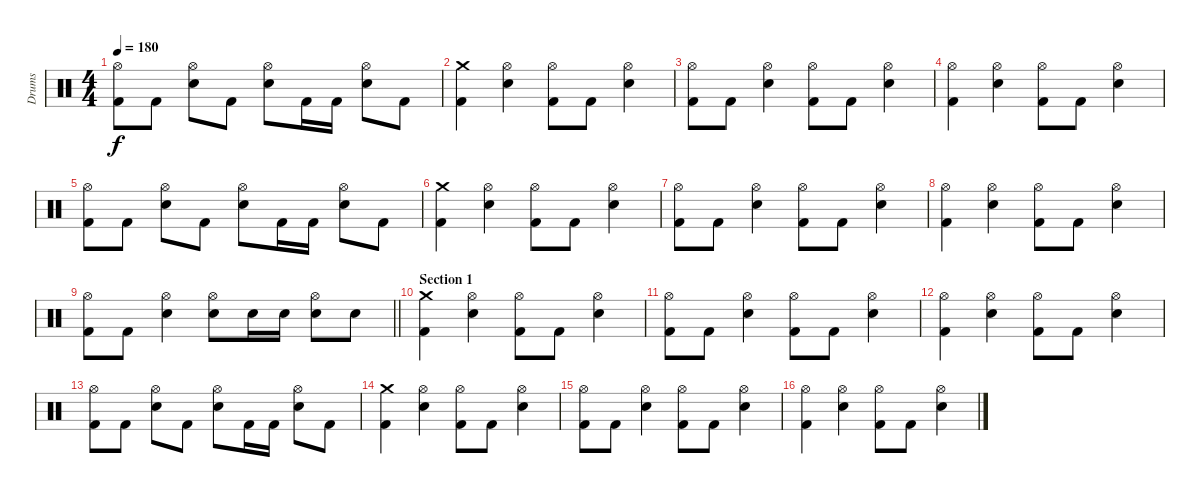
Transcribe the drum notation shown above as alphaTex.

\track ("Drums" "Drums") {instrument percussion}
\staff {score}
\articulation defaults
\ts (4 4)
\tempo 180
\clef neutral
\ks c
("Hi-Hat (open)" "Kick (hit) 2").8{dy f} "Kick (hit) 2".8 ("Hi-Hat (open)" "Electric Snare (hit)").8 "Kick (hit) 2".8 ("Hi-Hat (open)" "Electric Snare (hit)").8 "Kick (hit) 2".16 "Kick (hit) 2".16 ("Hi-Hat (open)" "Electric Snare (hit)").8 "Kick (hit) 2".8 |
("Crash medium (hit)" "Kick (hit) 2").4 ("Hi-Hat (open)" "Electric Snare (hit)").4 ("Hi-Hat (open)" "Kick (hit) 2").8 "Kick (hit) 2".8 ("Hi-Hat (open)" "Electric Snare (hit)").4 |
("Hi-Hat (open)" "Kick (hit) 2").8 "Kick (hit) 2".8 ("Hi-Hat (open)" "Electric Snare (hit)").4 ("Hi-Hat (open)" "Kick (hit) 2").8 "Kick (hit) 2".8 ("Hi-Hat (open)" "Electric Snare (hit)").4 |
("Hi-Hat (open)" "Kick (hit) 2").4 ("Hi-Hat (open)" "Electric Snare (hit)").4 ("Hi-Hat (open)" "Kick (hit) 2").8 "Kick (hit) 2".8 ("Hi-Hat (open)" "Electric Snare (hit)").4 |
("Hi-Hat (open)" "Kick (hit) 2").8 "Kick (hit) 2".8 ("Hi-Hat (open)" "Electric Snare (hit)").8 "Kick (hit) 2".8 ("Hi-Hat (open)" "Electric Snare (hit)").8 "Kick (hit) 2".16 "Kick (hit) 2".16 ("Hi-Hat (open)" "Electric Snare (hit)").8 "Kick (hit) 2".8 |
("Crash medium (hit)" "Kick (hit) 2").4 ("Hi-Hat (open)" "Electric Snare (hit)").4 ("Hi-Hat (open)" "Kick (hit) 2").8 "Kick (hit) 2".8 ("Hi-Hat (open)" "Electric Snare (hit)").4 |
("Hi-Hat (open)" "Kick (hit) 2").8 "Kick (hit) 2".8 ("Hi-Hat (open)" "Electric Snare (hit)").4 ("Hi-Hat (open)" "Kick (hit) 2").8 "Kick (hit) 2".8 ("Hi-Hat (open)" "Electric Snare (hit)").4 |
("Hi-Hat (open)" "Kick (hit) 2").4 ("Hi-Hat (open)" "Electric Snare (hit)").4 ("Hi-Hat (open)" "Kick (hit) 2").8 "Kick (hit) 2".8 ("Hi-Hat (open)" "Electric Snare (hit)").4 |
\barLineRight lightlight
("Hi-Hat (open)" "Kick (hit) 2").8 "Kick (hit) 2".8 ("Hi-Hat (open)" "Electric Snare (hit)").4 ("Hi-Hat (open)" "Electric Snare (hit)").8 "Electric Snare (hit)".16 "Electric Snare (hit)".16 ("Hi-Hat (open)" "Electric Snare (hit)").8 "Electric Snare (hit)".8 |
\section ("" "Section 1")
("Crash medium (hit)" "Kick (hit) 2").4 ("Hi-Hat (open)" "Electric Snare (hit)").4 ("Hi-Hat (open)" "Kick (hit) 2").8 "Kick (hit) 2".8 ("Hi-Hat (open)" "Electric Snare (hit)").4 |
("Hi-Hat (open)" "Kick (hit) 2").8 "Kick (hit) 2".8 ("Hi-Hat (open)" "Electric Snare (hit)").4 ("Hi-Hat (open)" "Kick (hit) 2").8 "Kick (hit) 2".8 ("Hi-Hat (open)" "Electric Snare (hit)").4 |
("Hi-Hat (open)" "Kick (hit) 2").4 ("Hi-Hat (open)" "Electric Snare (hit)").4 ("Hi-Hat (open)" "Kick (hit) 2").8 "Kick (hit) 2".8 ("Hi-Hat (open)" "Electric Snare (hit)").4 |
("Hi-Hat (open)" "Kick (hit) 2").8 "Kick (hit) 2".8 ("Hi-Hat (open)" "Electric Snare (hit)").8 "Kick (hit) 2".8 ("Hi-Hat (open)" "Electric Snare (hit)").8 "Kick (hit) 2".16 "Kick (hit) 2".16 ("Hi-Hat (open)" "Electric Snare (hit)").8 "Kick (hit) 2".8 |
("Crash medium (hit)" "Kick (hit) 2").4 ("Hi-Hat (open)" "Electric Snare (hit)").4 ("Hi-Hat (open)" "Kick (hit) 2").8 "Kick (hit) 2".8 ("Hi-Hat (open)" "Electric Snare (hit)").4 |
("Hi-Hat (open)" "Kick (hit) 2").8 "Kick (hit) 2".8 ("Hi-Hat (open)" "Electric Snare (hit)").4 ("Hi-Hat (open)" "Kick (hit) 2").8 "Kick (hit) 2".8 ("Hi-Hat (open)" "Electric Snare (hit)").4 |
("Hi-Hat (open)" "Kick (hit) 2").4 ("Hi-Hat (open)" "Electric Snare (hit)").4 ("Hi-Hat (open)" "Kick (hit) 2").8 "Kick (hit) 2".8 ("Hi-Hat (open)" "Electric Snare (hit)").4
